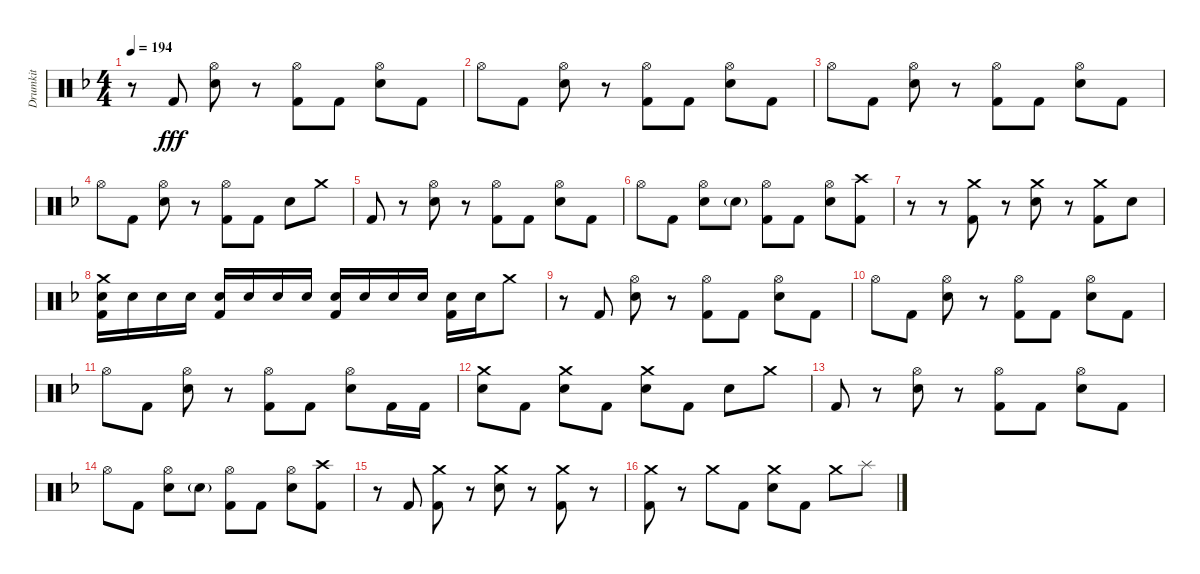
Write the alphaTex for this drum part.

\track ("Drumkit" "Drumkit") {instrument percussion}
\staff {score}
\articulation defaults
\ts (4 4)
\tempo 194
\clef neutral
\ks f
r.8{dy fff} "Kick (hit) 2".8 ("Hi-Hat (open)" "Snare (hit) 2").8 r.8 ("Hi-Hat (open)" "Kick (hit) 2").8 "Kick (hit) 2".8 ("Hi-Hat (open)" "Snare (hit) 2").8 "Kick (hit) 2".8 |
"Hi-Hat (open)".8 "Kick (hit) 2".8 ("Hi-Hat (open)" "Snare (hit) 2").8 r.8 ("Hi-Hat (open)" "Kick (hit) 2").8 "Kick (hit) 2".8 ("Hi-Hat (open)" "Snare (hit) 2").8 "Kick (hit) 2".8 |
"Hi-Hat (open)".8 "Kick (hit) 2".8 ("Hi-Hat (open)" "Snare (hit) 2").8 r.8 ("Hi-Hat (open)" "Kick (hit) 2").8 "Kick (hit) 2".8 ("Hi-Hat (open)" "Snare (hit) 2").8 "Kick (hit) 2".8 |
"Hi-Hat (open)".8 "Kick (hit) 2".8 ("Hi-Hat (open)" "Snare (hit) 2").8 r.8 ("Hi-Hat (open)" "Kick (hit) 2").8 "Kick (hit) 2".8 "Snare (hit) 2".8 "Crash medium (hit)".8 |
"Kick (hit) 2".8 r.8 ("Hi-Hat (open)" "Snare (hit) 2").8 r.8 ("Hi-Hat (open)" "Kick (hit) 2").8 "Kick (hit) 2".8 ("Hi-Hat (open)" "Snare (hit) 2").8 "Kick (hit) 2".8 |
"Hi-Hat (open)".8 "Kick (hit) 2".8 ("Hi-Hat (open)" "Snare (hit) 2").8 "Snare (hit) 2"{g}.8 ("Hi-Hat (open)" "Kick (hit) 2").8 "Kick (hit) 2".8 ("Hi-Hat (open)" "Snare (hit) 2").8 ("Crash high (hit)" "Kick (hit) 2").8 |
r.8 r.8 ("Crash medium (hit)" "Kick (hit) 2").8 r.8 ("Crash medium (hit)" "Snare (hit) 2").8 r.8 ("Crash medium (hit)" "Kick (hit) 2").8 "Snare (hit) 2".8 |
("Crash medium (hit)" "Snare (hit) 2" "Kick (hit) 2").16 "Snare (hit) 2".16 "Snare (hit) 2".16 "Snare (hit) 2".16 ("Snare (hit) 2" "Kick (hit) 2").16 "Snare (hit) 2".16 "Snare (hit) 2".16 "Snare (hit) 2".16 ("Snare (hit) 2" "Kick (hit) 2").16 "Snare (hit) 2".16 "Snare (hit) 2".16 "Snare (hit) 2".16 ("Snare (hit) 2" "Kick (hit) 2").16 "Snare (hit) 2".16 "Crash medium (hit)".8 |
r.8 "Kick (hit) 2".8 ("Hi-Hat (open)" "Snare (hit) 2").8 r.8 ("Hi-Hat (open)" "Kick (hit) 2").8 "Kick (hit) 2".8 ("Hi-Hat (open)" "Snare (hit) 2").8 "Kick (hit) 2".8 |
"Hi-Hat (open)".8 "Kick (hit) 2".8 ("Hi-Hat (open)" "Snare (hit) 2").8 r.8 ("Hi-Hat (open)" "Kick (hit) 2").8 "Kick (hit) 2".8 ("Hi-Hat (open)" "Snare (hit) 2").8 "Kick (hit) 2".8 |
"Hi-Hat (open)".8 "Kick (hit) 2".8 ("Hi-Hat (open)" "Snare (hit) 2").8 r.8 ("Hi-Hat (open)" "Kick (hit) 2").8 "Kick (hit) 2".8 ("Hi-Hat (open)" "Snare (hit) 2").8 "Kick (hit) 2".16 "Kick (hit) 2".16 |
("Crash medium (hit)" "Snare (hit) 2").8 "Kick (hit) 2".8 ("Crash medium (hit)" "Snare (hit) 2").8 "Kick (hit) 2".8 ("Crash medium (hit)" "Snare (hit) 2").8 "Kick (hit) 2".8 "Snare (hit) 2".8 "Crash medium (hit)".8 |
"Kick (hit) 2".8 r.8 ("Hi-Hat (open)" "Snare (hit) 2").8 r.8 ("Hi-Hat (open)" "Kick (hit) 2").8 "Kick (hit) 2".8 ("Hi-Hat (open)" "Snare (hit) 2").8 "Kick (hit) 2".8 |
"Hi-Hat (open)".8 "Kick (hit) 2".8 ("Hi-Hat (open)" "Snare (hit) 2").8 "Snare (hit) 2"{g}.8 ("Hi-Hat (open)" "Kick (hit) 2").8 "Kick (hit) 2".8 ("Hi-Hat (open)" "Snare (hit) 2").8 ("Crash high (hit)" "Kick (hit) 2").8 |
r.8 "Kick (hit) 2".8 ("Crash medium (hit)" "Kick (hit) 2").8 r.8 ("Crash medium (hit)" "Snare (hit) 2").8 r.8 ("Crash medium (hit)" "Kick (hit) 2").8 r.8 |
("Crash medium (hit)" "Kick (hit) 2").8 r.8 "Crash medium (hit)".8 "Kick (hit) 2".8 ("Crash medium (hit)" "Snare (hit) 2").8 "Kick (hit) 2".8 "Crash medium (hit)".8 "Splash (hit)".8
